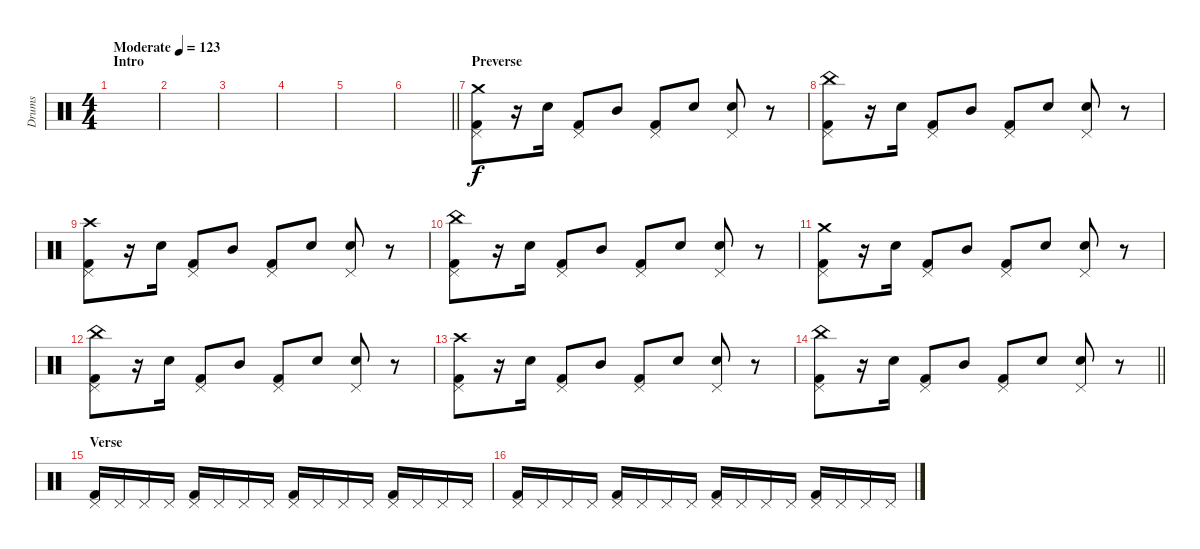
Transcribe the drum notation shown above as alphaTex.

\track ("Drums" "Drums") {instrument percussion}
\staff {score}
\articulation defaults
\ts (4 4)
\section ("" "Intro")
\tempo (123 "Moderate")
\clef neutral
\ks c
|
|
|
|
|
\barLineRight lightlight
|
\section ("" "Preverse")
("Crash medium (hit)" "Pedal Hi-Hat (hit)" "Kick (hit) 2").8 r.16 "Snare (hit) 2".16 ("Pedal Hi-Hat (hit)" "Kick (hit) 2").8 "Mid Tom (hit)".8 ("Pedal Hi-Hat (hit)" "Kick (hit) 2").8 "Snare (hit) 2".8 ("Pedal Hi-Hat (hit)" "Snare (hit) 2").8 r.8 |
("China (hit)" "Pedal Hi-Hat (hit)" "Kick (hit) 2").8 r.16 "Snare (hit) 2".16 ("Pedal Hi-Hat (hit)" "Kick (hit) 2").8 "Mid Tom (hit)".8 ("Pedal Hi-Hat (hit)" "Kick (hit) 2").8 "Snare (hit) 2".8 ("Pedal Hi-Hat (hit)" "Snare (hit) 2").8 r.8 |
("Crash high (hit)" "Pedal Hi-Hat (hit)" "Kick (hit) 2").8 r.16 "Snare (hit) 2".16 ("Pedal Hi-Hat (hit)" "Kick (hit) 2").8 "Mid Tom (hit)".8 ("Pedal Hi-Hat (hit)" "Kick (hit) 2").8 "Snare (hit) 2".8 ("Pedal Hi-Hat (hit)" "Snare (hit) 2").8 r.8 |
("China (hit)" "Pedal Hi-Hat (hit)" "Kick (hit) 2").8 r.16 "Snare (hit) 2".16 ("Pedal Hi-Hat (hit)" "Kick (hit) 2").8 "Mid Tom (hit)".8 ("Pedal Hi-Hat (hit)" "Kick (hit) 2").8 "Snare (hit) 2".8 ("Pedal Hi-Hat (hit)" "Snare (hit) 2").8 r.8 |
("Crash medium (hit)" "Pedal Hi-Hat (hit)" "Kick (hit) 2").8 r.16 "Snare (hit) 2".16 ("Pedal Hi-Hat (hit)" "Kick (hit) 2").8 "Mid Tom (hit)".8 ("Pedal Hi-Hat (hit)" "Kick (hit) 2").8 "Snare (hit) 2".8 ("Pedal Hi-Hat (hit)" "Snare (hit) 2").8 r.8 |
("China (hit)" "Pedal Hi-Hat (hit)" "Kick (hit) 2").8 r.16 "Snare (hit) 2".16 ("Pedal Hi-Hat (hit)" "Kick (hit) 2").8 "Mid Tom (hit)".8 ("Pedal Hi-Hat (hit)" "Kick (hit) 2").8 "Snare (hit) 2".8 ("Pedal Hi-Hat (hit)" "Snare (hit) 2").8 r.8 |
("Crash high (hit)" "Pedal Hi-Hat (hit)" "Kick (hit) 2").8 r.16 "Snare (hit) 2".16 ("Pedal Hi-Hat (hit)" "Kick (hit) 2").8 "Mid Tom (hit)".8 ("Pedal Hi-Hat (hit)" "Kick (hit) 2").8 "Snare (hit) 2".8 ("Pedal Hi-Hat (hit)" "Snare (hit) 2").8 r.8 |
\barLineRight lightlight
("China (hit)" "Pedal Hi-Hat (hit)" "Kick (hit) 2").8 r.16 "Snare (hit) 2".16 ("Pedal Hi-Hat (hit)" "Kick (hit) 2").8 "Mid Tom (hit)".8 ("Pedal Hi-Hat (hit)" "Kick (hit) 2").8 "Snare (hit) 2".8 ("Pedal Hi-Hat (hit)" "Snare (hit) 2").8 r.8 |
\section ("" "Verse")
("Pedal Hi-Hat (hit)" "Kick (hit) 2").16 "Pedal Hi-Hat (hit)".16 "Pedal Hi-Hat (hit)".16 "Pedal Hi-Hat (hit)".16 ("Pedal Hi-Hat (hit)" "Kick (hit) 2").16 "Pedal Hi-Hat (hit)".16 "Pedal Hi-Hat (hit)".16 "Pedal Hi-Hat (hit)".16 ("Pedal Hi-Hat (hit)" "Kick (hit) 2").16 "Pedal Hi-Hat (hit)".16 "Pedal Hi-Hat (hit)".16 "Pedal Hi-Hat (hit)".16 ("Pedal Hi-Hat (hit)" "Kick (hit) 2").16 "Pedal Hi-Hat (hit)".16 "Pedal Hi-Hat (hit)".16 "Pedal Hi-Hat (hit)".16 |
("Pedal Hi-Hat (hit)" "Kick (hit) 2").16 "Pedal Hi-Hat (hit)".16 "Pedal Hi-Hat (hit)".16 "Pedal Hi-Hat (hit)".16 ("Pedal Hi-Hat (hit)" "Kick (hit) 2").16 "Pedal Hi-Hat (hit)".16 "Pedal Hi-Hat (hit)".16 "Pedal Hi-Hat (hit)".16 ("Pedal Hi-Hat (hit)" "Kick (hit) 2").16 "Pedal Hi-Hat (hit)".16 "Pedal Hi-Hat (hit)".16 "Pedal Hi-Hat (hit)".16 ("Pedal Hi-Hat (hit)" "Kick (hit) 2").16 "Pedal Hi-Hat (hit)".16 "Pedal Hi-Hat (hit)".16 "Pedal Hi-Hat (hit)".16
